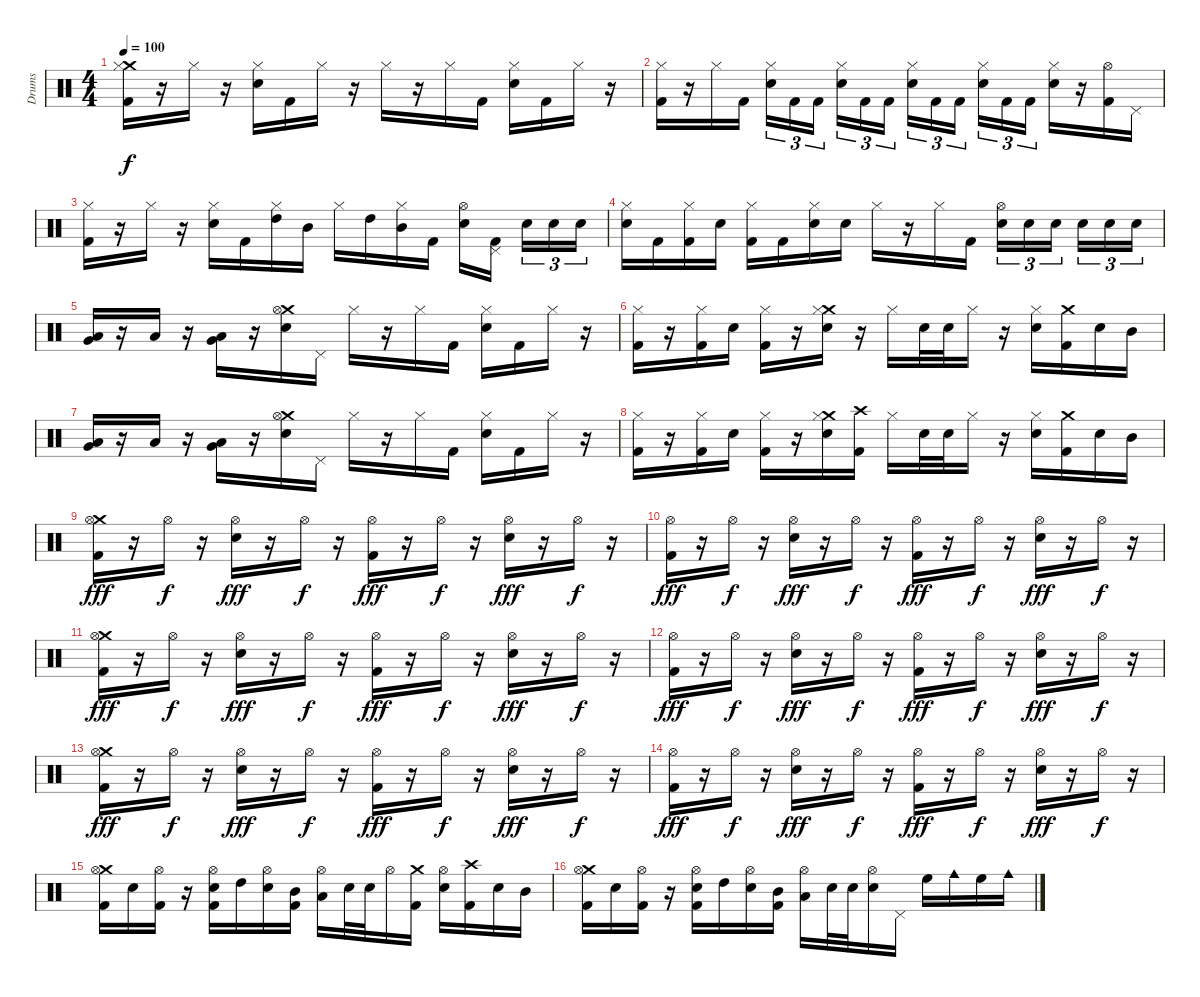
\track ("Drums" "Drums") {instrument percussion}
\staff {score}
\articulation defaults
\ts (4 4)
\tempo 100
\clef neutral
\ks c
("Crash medium (hit)" "Hi-Hat (closed)" "Kick (hit) 2").16{dy f} r.16 "Hi-Hat (closed)".16 r.16 ("Hi-Hat (closed)" "Electric Snare (hit)").16 "Kick (hit) 2".16 "Hi-Hat (closed)".16 r.16 "Hi-Hat (closed)".16 r.16 "Hi-Hat (closed)".16 "Kick (hit) 2".16 ("Hi-Hat (closed)" "Electric Snare (hit)").16 "Kick (hit) 2".16 "Hi-Hat (closed)".16 r.16 |
("Hi-Hat (closed)" "Kick (hit) 2").16 r.16 "Hi-Hat (closed)".16 "Kick (hit) 2".16 ("Hi-Hat (closed)" "Electric Snare (hit)").16{tu (3 2)} "Kick (hit) 2".16{tu (3 2)} "Kick (hit) 2".16{tu (3 2)} ("Hi-Hat (closed)" "Electric Snare (hit)").16{tu (3 2)} "Kick (hit) 2".16{tu (3 2)} "Kick (hit) 2".16{tu (3 2)} ("Hi-Hat (closed)" "Electric Snare (hit)").16{tu (3 2)} "Kick (hit) 2".16{tu (3 2)} "Kick (hit) 2".16{tu (3 2)} ("Hi-Hat (closed)" "Electric Snare (hit)").16{tu (3 2)} "Kick (hit) 2".16{tu (3 2)} "Kick (hit) 2".16{tu (3 2)} ("Hi-Hat (closed)" "Electric Snare (hit)").16 r.16 ("Hi-Hat (open)" "Kick (hit) 2").16 "Pedal Hi-Hat (hit)".16 |
("Hi-Hat (closed)" "Kick (hit) 2").16 r.16 "Hi-Hat (closed)".16 r.16 ("Hi-Hat (closed)" "Electric Snare (hit)").16 "Kick (hit) 2".16 ("Hi-Hat (closed)" "High Tom (hit)").16 "Mid Tom (hit)".16 "Hi-Hat (closed)".16 "High Tom (hit)".16 ("Hi-Hat (closed)" "Mid Tom (hit)").16 "Kick (hit) 2".16 ("Hi-Hat (open)" "Electric Snare (hit)").16 ("Pedal Hi-Hat (hit)" "Kick (hit) 2").16 "Electric Snare (hit)".16{tu (3 2)} "Electric Snare (hit)".16{tu (3 2)} "Electric Snare (hit)".16{tu (3 2)} |
("Hi-Hat (closed)" "Electric Snare (hit)").16 "Kick (hit) 2".16 ("Hi-Hat (closed)" "Kick (hit) 2").16 "Electric Snare (hit)".16 ("Hi-Hat (closed)" "Kick (hit) 2").16 "Kick (hit) 2".16 ("Hi-Hat (closed)" "Electric Snare (hit)").16 "Electric Snare (hit)".16 "Hi-Hat (closed)".16 r.16 "Hi-Hat (closed)".16 "Kick (hit) 2".16 ("Hi-Hat (open)" "Electric Snare (hit)").16{tu (3 2)} "Electric Snare (hit)".16{tu (3 2)} "Electric Snare (hit)".16{tu (3 2)} "Electric Snare (hit)".16{tu (3 2)} "Electric Snare (hit)".16{tu (3 2)} "Electric Snare (hit)".16{tu (3 2)} |
("Low Floor Tom (hit)" "Very Low Tom (hit)").16 r.16 "Low Floor Tom (hit)".16 r.16 ("Very Low Tom (hit)" "Low Floor Tom (hit)").16 r.16 ("Crash medium (hit)" "Hi-Hat (open)" "Electric Snare (hit)").16 "Pedal Hi-Hat (hit)".16 "Hi-Hat (closed)".16 r.16 "Hi-Hat (closed)".16 "Kick (hit) 2".16 ("Hi-Hat (closed)" "Electric Snare (hit)").16 "Kick (hit) 2".16 "Hi-Hat (closed)".16 r.16 |
("Hi-Hat (closed)" "Kick (hit) 2").16 r.16 ("Hi-Hat (closed)" "Kick (hit) 2").16 "Electric Snare (hit)".16 ("Hi-Hat (closed)" "Kick (hit) 2").16 r.16 ("Crash medium (hit)" "Hi-Hat (closed)" "Electric Snare (hit)").16 r.16 "Hi-Hat (closed)".16 "Electric Snare (hit)".32 "Electric Snare (hit)".32 "Hi-Hat (closed)".16 r.16 ("Hi-Hat (closed)" "Electric Snare (hit)").16 ("Crash medium (hit)" "Kick (hit) 2").16 "Electric Snare (hit)".16 "Mid Tom (hit)".16 |
("Low Floor Tom (hit)" "Very Low Tom (hit)").16 r.16 "Low Floor Tom (hit)".16 r.16 ("Very Low Tom (hit)" "Low Floor Tom (hit)").16 r.16 ("Crash medium (hit)" "Hi-Hat (open)" "Electric Snare (hit)").16 "Pedal Hi-Hat (hit)".16 "Hi-Hat (closed)".16 r.16 "Hi-Hat (closed)".16 "Kick (hit) 2".16 ("Hi-Hat (closed)" "Electric Snare (hit)").16 "Kick (hit) 2".16 "Hi-Hat (closed)".16 r.16 |
("Hi-Hat (closed)" "Kick (hit) 2").16 r.16 ("Hi-Hat (closed)" "Kick (hit) 2").16 "Electric Snare (hit)".16 ("Hi-Hat (closed)" "Kick (hit) 2").16 r.16 ("Crash medium (hit)" "Hi-Hat (closed)" "Electric Snare (hit)").16 ("Crash high (hit)" "Kick (hit) 2").16 "Hi-Hat (closed)".16 "Electric Snare (hit)".32 "Electric Snare (hit)".32 "Hi-Hat (closed)".16 r.16 ("Hi-Hat (closed)" "Electric Snare (hit)").16 ("Crash medium (hit)" "Kick (hit) 2").16 "Electric Snare (hit)".16 "Mid Tom (hit)".16 |
("Crash medium (hit)" "Hi-Hat (open)" "Kick (hit) 2").16{dy fff} r.16 "Hi-Hat (open)".16{dy f} r.16 ("Hi-Hat (open)" "Electric Snare (hit)").16{dy fff} r.16 "Hi-Hat (open)".16{dy f} r.16 ("Hi-Hat (open)" "Kick (hit) 2").16{dy fff} r.16 "Hi-Hat (open)".16{dy f} r.16 ("Hi-Hat (open)" "Electric Snare (hit)").16{dy fff} r.16 "Hi-Hat (open)".16{dy f} r.16 |
("Hi-Hat (open)" "Kick (hit) 2").16{dy fff} r.16 "Hi-Hat (open)".16{dy f} r.16 ("Hi-Hat (open)" "Electric Snare (hit)").16{dy fff} r.16 "Hi-Hat (open)".16{dy f} r.16 ("Hi-Hat (open)" "Kick (hit) 2").16{dy fff} r.16 "Hi-Hat (open)".16{dy f} r.16 ("Hi-Hat (open)" "Electric Snare (hit)").16{dy fff} r.16 "Hi-Hat (open)".16{dy f} r.16 |
("Crash medium (hit)" "Hi-Hat (open)" "Kick (hit) 2").16{dy fff} r.16 "Hi-Hat (open)".16{dy f} r.16 ("Hi-Hat (open)" "Electric Snare (hit)").16{dy fff} r.16 "Hi-Hat (open)".16{dy f} r.16 ("Hi-Hat (open)" "Kick (hit) 2").16{dy fff} r.16 "Hi-Hat (open)".16{dy f} r.16 ("Hi-Hat (open)" "Electric Snare (hit)").16{dy fff} r.16 "Hi-Hat (open)".16{dy f} r.16 |
("Hi-Hat (open)" "Kick (hit) 2").16{dy fff} r.16 "Hi-Hat (open)".16{dy f} r.16 ("Hi-Hat (open)" "Electric Snare (hit)").16{dy fff} r.16 "Hi-Hat (open)".16{dy f} r.16 ("Hi-Hat (open)" "Kick (hit) 2").16{dy fff} r.16 "Hi-Hat (open)".16{dy f} r.16 ("Hi-Hat (open)" "Electric Snare (hit)").16{dy fff} r.16 "Hi-Hat (open)".16{dy f} r.16 |
("Crash medium (hit)" "Hi-Hat (open)" "Kick (hit) 2").16{dy fff} r.16 "Hi-Hat (open)".16{dy f} r.16 ("Hi-Hat (open)" "Electric Snare (hit)").16{dy fff} r.16 "Hi-Hat (open)".16{dy f} r.16 ("Hi-Hat (open)" "Kick (hit) 2").16{dy fff} r.16 "Hi-Hat (open)".16{dy f} r.16 ("Hi-Hat (open)" "Electric Snare (hit)").16{dy fff} r.16 "Hi-Hat (open)".16{dy f} r.16 |
("Hi-Hat (open)" "Kick (hit) 2").16{dy fff} r.16 "Hi-Hat (open)".16{dy f} r.16 ("Hi-Hat (open)" "Electric Snare (hit)").16{dy fff} r.16 "Hi-Hat (open)".16{dy f} r.16 ("Hi-Hat (open)" "Kick (hit) 2").16{dy fff} r.16 "Hi-Hat (open)".16{dy f} r.16 ("Hi-Hat (open)" "Electric Snare (hit)").16{dy fff} r.16 "Hi-Hat (open)".16{dy f} r.16 |
("Crash medium (hit)" "Hi-Hat (open)" "Kick (hit) 2").16 "Electric Snare (hit)".16 ("Hi-Hat (open)" "Kick (hit) 2").16 r.16 ("Hi-Hat (open)" "Electric Snare (hit)" "Kick (hit) 2").16 "High Tom (hit)".16 ("Hi-Hat (open)" "Electric Snare (hit)").16 ("Mid Tom (hit)" "Kick (hit) 2").16 ("Hi-Hat (open)" "Low Tom (hit)").16 "Electric Snare (hit)".32 "Electric Snare (hit)".32 "Hi-Hat (open)".16 ("Crash medium (hit)" "Kick (hit) 2").16 ("Hi-Hat (open)" "Electric Snare (hit)").16 ("Crash high (hit)" "Kick (hit) 2").16 "Electric Snare (hit)".16 "Mid Tom (hit)".16 |
("Crash medium (hit)" "Hi-Hat (open)" "Kick (hit) 2").16 "Electric Snare (hit)".16 ("Hi-Hat (open)" "Kick (hit) 2").16 r.16 ("Hi-Hat (open)" "Electric Snare (hit)" "Kick (hit) 2").16 "High Tom (hit)".16 ("Hi-Hat (open)" "Electric Snare (hit)").16 ("Mid Tom (hit)" "Kick (hit) 2").16 ("Hi-Hat (open)" "Low Tom (hit)").16 "Electric Snare (hit)".32 "Electric Snare (hit)".32 ("Hi-Hat (open)" "Electric Snare (hit)").16 "Pedal Hi-Hat (hit)".16 "High Floor Tom (hit)".16 "Cowbell medium (hit)".16 "High Floor Tom (hit)".16 "Cowbell medium (hit)".16
